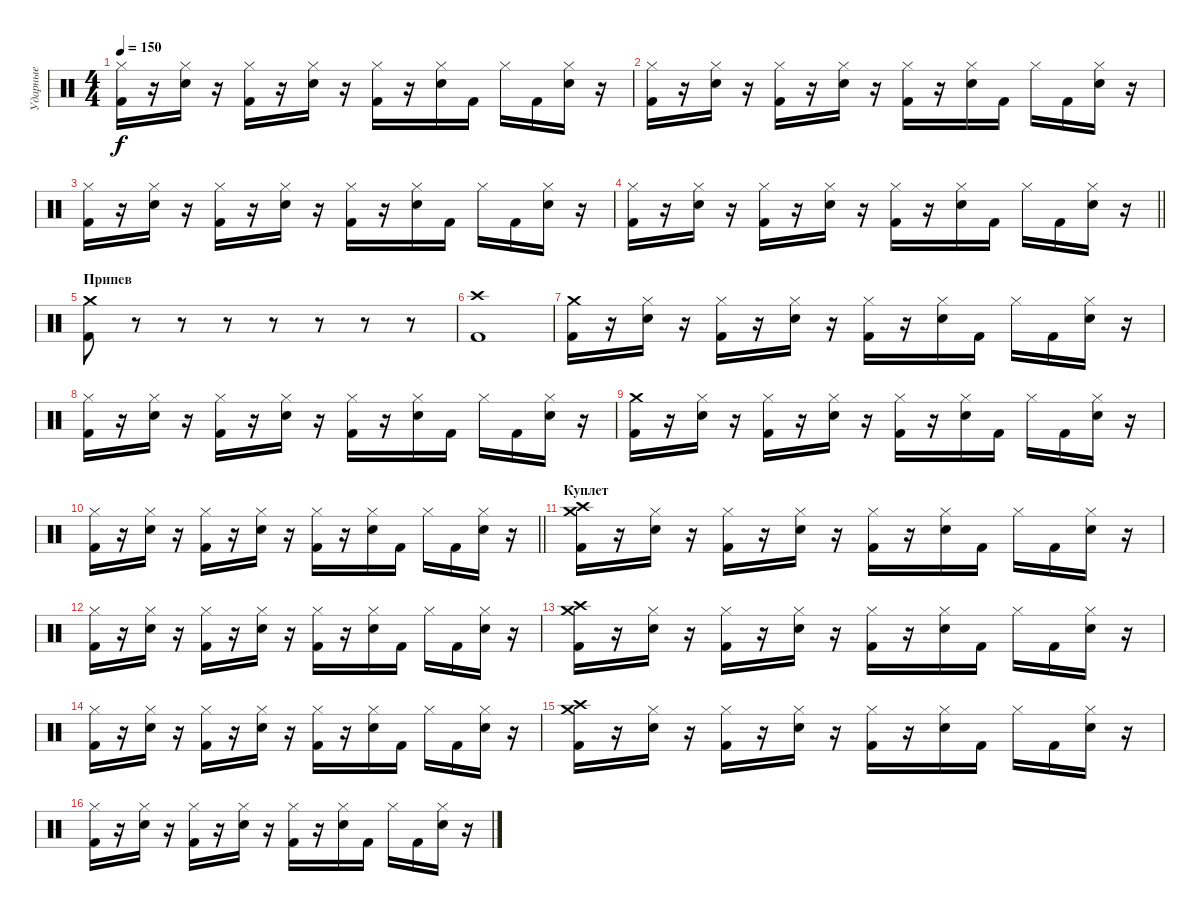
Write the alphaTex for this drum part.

\track ("Ударные" "Ударные") {instrument percussion}
\staff {score}
\articulation defaults
\ts (4 4)
\tempo 150
\clef neutral
\ks c
("Hi-Hat (closed)" "Kick (hit) 2").16{dy f} r.16 ("Hi-Hat (closed)" "Snare (hit) 2").16 r.16 ("Hi-Hat (closed)" "Kick (hit) 2").16 r.16 ("Hi-Hat (closed)" "Snare (hit) 2").16 r.16 ("Hi-Hat (closed)" "Kick (hit) 2").16 r.16 ("Hi-Hat (closed)" "Snare (hit) 2").16 "Kick (hit) 2".16 "Hi-Hat (closed)".16 "Kick (hit) 2".16 ("Hi-Hat (closed)" "Snare (hit) 2").16 r.16 |
("Hi-Hat (closed)" "Kick (hit) 2").16 r.16 ("Hi-Hat (closed)" "Snare (hit) 2").16 r.16 ("Hi-Hat (closed)" "Kick (hit) 2").16 r.16 ("Hi-Hat (closed)" "Snare (hit) 2").16 r.16 ("Hi-Hat (closed)" "Kick (hit) 2").16 r.16 ("Hi-Hat (closed)" "Snare (hit) 2").16 "Kick (hit) 2".16 "Hi-Hat (closed)".16 "Kick (hit) 2".16 ("Hi-Hat (closed)" "Snare (hit) 2").16 r.16 |
("Hi-Hat (closed)" "Kick (hit) 2").16 r.16 ("Hi-Hat (closed)" "Snare (hit) 2").16 r.16 ("Hi-Hat (closed)" "Kick (hit) 2").16 r.16 ("Hi-Hat (closed)" "Snare (hit) 2").16 r.16 ("Hi-Hat (closed)" "Kick (hit) 2").16 r.16 ("Hi-Hat (closed)" "Snare (hit) 2").16 "Kick (hit) 2".16 "Hi-Hat (closed)".16 "Kick (hit) 2".16 ("Hi-Hat (closed)" "Snare (hit) 2").16 r.16 |
\barLineRight lightlight
("Hi-Hat (closed)" "Kick (hit) 2").16 r.16 ("Hi-Hat (closed)" "Snare (hit) 2").16 r.16 ("Hi-Hat (closed)" "Kick (hit) 2").16 r.16 ("Hi-Hat (closed)" "Snare (hit) 2").16 r.16 ("Hi-Hat (closed)" "Kick (hit) 2").16 r.16 ("Hi-Hat (closed)" "Snare (hit) 2").16 "Kick (hit) 2".16 "Hi-Hat (closed)".16 "Kick (hit) 2".16 ("Hi-Hat (closed)" "Snare (hit) 2").16 r.16 |
\section ("" "Припев")
("Crash medium (hit)" "Kick (hit) 2").8 r.8 r.8 r.8 r.8 r.8 r.8 r.8 |
("Crash high (hit)" "Kick (hit) 2").1 |
("Crash medium (hit)" "Kick (hit) 2").16 r.16 ("Hi-Hat (closed)" "Snare (hit) 2").16 r.16 ("Hi-Hat (closed)" "Kick (hit) 2").16 r.16 ("Hi-Hat (closed)" "Snare (hit) 2").16 r.16 ("Hi-Hat (closed)" "Kick (hit) 2").16 r.16 ("Hi-Hat (closed)" "Snare (hit) 2").16 "Kick (hit) 2".16 "Hi-Hat (closed)".16 "Kick (hit) 2".16 ("Hi-Hat (closed)" "Snare (hit) 2").16 r.16 |
("Hi-Hat (closed)" "Kick (hit) 2").16 r.16 ("Hi-Hat (closed)" "Snare (hit) 2").16 r.16 ("Hi-Hat (closed)" "Kick (hit) 2").16 r.16 ("Hi-Hat (closed)" "Snare (hit) 2").16 r.16 ("Hi-Hat (closed)" "Kick (hit) 2").16 r.16 ("Hi-Hat (closed)" "Snare (hit) 2").16 "Kick (hit) 2".16 "Hi-Hat (closed)".16 "Kick (hit) 2".16 ("Hi-Hat (closed)" "Snare (hit) 2").16 r.16 |
("Crash medium (hit)" "Kick (hit) 2").16 r.16 ("Hi-Hat (closed)" "Snare (hit) 2").16 r.16 ("Hi-Hat (closed)" "Kick (hit) 2").16 r.16 ("Hi-Hat (closed)" "Snare (hit) 2").16 r.16 ("Hi-Hat (closed)" "Kick (hit) 2").16 r.16 ("Hi-Hat (closed)" "Snare (hit) 2").16 "Kick (hit) 2".16 "Hi-Hat (closed)".16 "Kick (hit) 2".16 ("Hi-Hat (closed)" "Snare (hit) 2").16 r.16 |
\barLineRight lightlight
("Hi-Hat (closed)" "Kick (hit) 2").16 r.16 ("Hi-Hat (closed)" "Snare (hit) 2").16 r.16 ("Hi-Hat (closed)" "Kick (hit) 2").16 r.16 ("Hi-Hat (closed)" "Snare (hit) 2").16 r.16 ("Hi-Hat (closed)" "Kick (hit) 2").16 r.16 ("Hi-Hat (closed)" "Snare (hit) 2").16 "Kick (hit) 2".16 "Hi-Hat (closed)".16 "Kick (hit) 2".16 ("Hi-Hat (closed)" "Snare (hit) 2").16 r.16 |
\section ("" "Куплет")
("Crash high (hit)" "Kick (hit) 2" "Crash medium (hit)").16 r.16 ("Hi-Hat (closed)" "Snare (hit) 2").16 r.16 ("Hi-Hat (closed)" "Kick (hit) 2").16 r.16 ("Hi-Hat (closed)" "Snare (hit) 2").16 r.16 ("Hi-Hat (closed)" "Kick (hit) 2").16 r.16 ("Hi-Hat (closed)" "Snare (hit) 2").16 "Kick (hit) 2".16 "Hi-Hat (closed)".16 "Kick (hit) 2".16 ("Hi-Hat (closed)" "Snare (hit) 2").16 r.16 |
("Hi-Hat (closed)" "Kick (hit) 2").16 r.16 ("Hi-Hat (closed)" "Snare (hit) 2").16 r.16 ("Hi-Hat (closed)" "Kick (hit) 2").16 r.16 ("Hi-Hat (closed)" "Snare (hit) 2").16 r.16 ("Hi-Hat (closed)" "Kick (hit) 2").16 r.16 ("Hi-Hat (closed)" "Snare (hit) 2").16 "Kick (hit) 2".16 "Hi-Hat (closed)".16 "Kick (hit) 2".16 ("Hi-Hat (closed)" "Snare (hit) 2").16 r.16 |
("Crash high (hit)" "Kick (hit) 2" "Crash medium (hit)").16 r.16 ("Hi-Hat (closed)" "Snare (hit) 2").16 r.16 ("Hi-Hat (closed)" "Kick (hit) 2").16 r.16 ("Hi-Hat (closed)" "Snare (hit) 2").16 r.16 ("Hi-Hat (closed)" "Kick (hit) 2").16 r.16 ("Hi-Hat (closed)" "Snare (hit) 2").16 "Kick (hit) 2".16 "Hi-Hat (closed)".16 "Kick (hit) 2".16 ("Hi-Hat (closed)" "Snare (hit) 2").16 r.16 |
("Hi-Hat (closed)" "Kick (hit) 2").16 r.16 ("Hi-Hat (closed)" "Snare (hit) 2").16 r.16 ("Hi-Hat (closed)" "Kick (hit) 2").16 r.16 ("Hi-Hat (closed)" "Snare (hit) 2").16 r.16 ("Hi-Hat (closed)" "Kick (hit) 2").16 r.16 ("Hi-Hat (closed)" "Snare (hit) 2").16 "Kick (hit) 2".16 "Hi-Hat (closed)".16 "Kick (hit) 2".16 ("Hi-Hat (closed)" "Snare (hit) 2").16 r.16 |
("Crash high (hit)" "Kick (hit) 2" "Crash medium (hit)").16 r.16 ("Hi-Hat (closed)" "Snare (hit) 2").16 r.16 ("Hi-Hat (closed)" "Kick (hit) 2").16 r.16 ("Hi-Hat (closed)" "Snare (hit) 2").16 r.16 ("Hi-Hat (closed)" "Kick (hit) 2").16 r.16 ("Hi-Hat (closed)" "Snare (hit) 2").16 "Kick (hit) 2".16 "Hi-Hat (closed)".16 "Kick (hit) 2".16 ("Hi-Hat (closed)" "Snare (hit) 2").16 r.16 |
("Hi-Hat (closed)" "Kick (hit) 2").16 r.16 ("Hi-Hat (closed)" "Snare (hit) 2").16 r.16 ("Hi-Hat (closed)" "Kick (hit) 2").16 r.16 ("Hi-Hat (closed)" "Snare (hit) 2").16 r.16 ("Hi-Hat (closed)" "Kick (hit) 2").16 r.16 ("Hi-Hat (closed)" "Snare (hit) 2").16 "Kick (hit) 2".16 "Hi-Hat (closed)".16 "Kick (hit) 2".16 ("Hi-Hat (closed)" "Snare (hit) 2").16 r.16
